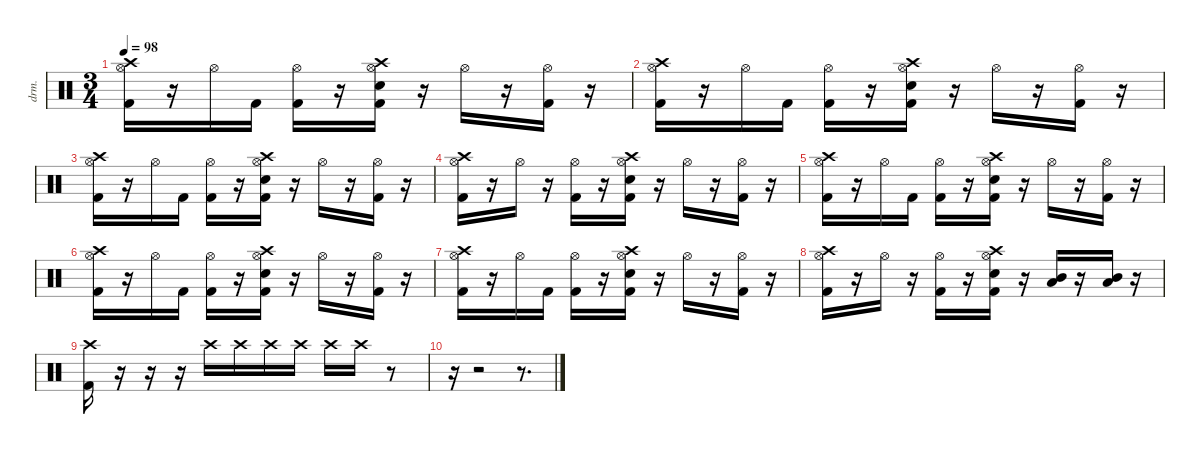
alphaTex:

\defaultSystemsLayout 4
\hideDynamics
\bracketExtendMode nobrackets
\otherSystemsTrackNameOrientation horizontal
\track ("Ударные" "drm.") {instrument percussion}
\staff {score}
\articulation defaults
\ts (3 4)
\tempo 98
\clef neutral
\ks c
("Crash high (hit)" "Kick (hit) 2" "Hi-Hat (open)").16{dy fff beam Down} r.16{beam Down} "Hi-Hat (open)".16{dy f beam Down} "Kick (hit) 2".16{beam Down} ("Kick (hit) 2" "Hi-Hat (open)").16{beam Down} r.16{beam Down} ("Crash high (hit)" "Snare (hit) 2" "Kick (hit) 2" "Hi-Hat (open)").16{beam Down} r.16{beam Down} "Hi-Hat (open)".16{beam Down} r.16{beam Down} ("Kick (hit) 2" "Hi-Hat (open)").16{beam Down} r.16{beam Down} |
("Crash high (hit)" "Kick (hit) 2" "Hi-Hat (open)").16{dy fff beam Down} r.16{beam Down} "Hi-Hat (open)".16{dy f beam Down} "Kick (hit) 2".16{dy mf beam Down} ("Kick (hit) 2" "Hi-Hat (open)").16{dy f beam Down} r.16{beam Down} ("Crash high (hit)" "Snare (hit) 2" "Kick (hit) 2" "Hi-Hat (open)").16{beam Down} r.16{beam Down} "Hi-Hat (open)".16{beam Down} r.16{beam Down} ("Kick (hit) 2" "Hi-Hat (open)").16{beam Down} r.16{beam Down} |
("Crash high (hit)" "Kick (hit) 2" "Hi-Hat (open)").16{dy fff beam Down} r.16{beam Down} "Hi-Hat (open)".16{dy f beam Down} "Kick (hit) 2".16{dy mf beam Down} ("Kick (hit) 2" "Hi-Hat (open)").16{dy f beam Down} r.16{beam Down} ("Crash high (hit)" "Snare (hit) 2" "Kick (hit) 2" "Hi-Hat (open)").16{beam Down} r.16{beam Down} "Hi-Hat (open)".16{beam Down} r.16{beam Down} ("Kick (hit) 2" "Hi-Hat (open)").16{beam Down} r.16{beam Down} |
("Crash high (hit)" "Kick (hit) 2" "Hi-Hat (open)").16{dy fff beam Down} r.16{beam Down} "Hi-Hat (open)".16{dy f beam Down} r.16{beam Down} ("Kick (hit) 2" "Hi-Hat (open)").16{beam Down} r.16{beam Down} ("Crash high (hit)" "Snare (hit) 2" "Kick (hit) 2" "Hi-Hat (open)").16{beam Down} r.16{beam Down} "Hi-Hat (open)".16{beam Down} r.16{beam Down} ("Kick (hit) 2" "Hi-Hat (open)").16{beam Down} r.16{beam Down} |
("Crash high (hit)" "Kick (hit) 2" "Hi-Hat (open)").16{dy fff beam Down} r.16{beam Down} "Hi-Hat (open)".16{dy f beam Down} "Kick (hit) 2".16{beam Down} ("Kick (hit) 2" "Hi-Hat (open)").16{beam Down} r.16{beam Down} ("Crash high (hit)" "Snare (hit) 2" "Kick (hit) 2" "Hi-Hat (open)").16{beam Down} r.16{beam Down} "Hi-Hat (open)".16{beam Down} r.16{beam Down} ("Kick (hit) 2" "Hi-Hat (open)").16{beam Down} r.16{beam Down} |
("Crash high (hit)" "Kick (hit) 2" "Hi-Hat (open)").16{dy fff beam Down} r.16{beam Down} "Hi-Hat (open)".16{dy f beam Down} "Kick (hit) 2".16{dy mf beam Down} ("Kick (hit) 2" "Hi-Hat (open)").16{dy f beam Down} r.16{beam Down} ("Crash high (hit)" "Snare (hit) 2" "Kick (hit) 2" "Hi-Hat (open)").16{beam Down} r.16{beam Down} "Hi-Hat (open)".16{beam Down} r.16{beam Down} ("Kick (hit) 2" "Hi-Hat (open)").16{beam Down} r.16{beam Down} |
("Crash high (hit)" "Kick (hit) 2" "Hi-Hat (open)").16{dy fff beam Down} r.16{beam Down} "Hi-Hat (open)".16{dy f beam Down} "Kick (hit) 2".16{dy mf beam Down} ("Kick (hit) 2" "Hi-Hat (open)").16{dy f beam Down} r.16{beam Down} ("Crash high (hit)" "Snare (hit) 2" "Kick (hit) 2" "Hi-Hat (open)").16{beam Down} r.16{beam Down} "Hi-Hat (open)".16{beam Down} r.16{beam Down} ("Kick (hit) 2" "Hi-Hat (open)").16{beam Down} r.16{beam Down} |
("Crash high (hit)" "Kick (hit) 2" "Hi-Hat (open)").16{dy fff beam Down} r.16{beam Down} "Hi-Hat (open)".16{dy f beam Down} r.16{beam Down} ("Kick (hit) 2" "Hi-Hat (open)").16{beam Down} r.16{beam Down} ("Crash high (hit)" "Snare (hit) 2" "Kick (hit) 2" "Hi-Hat (open)").16{beam Down} r.16{beam Down} ("Mid Tom (hit)" "Low Tom (hit)").16{beam Up} r.16{beam Up} ("Low Tom (hit)" "Mid Tom (hit)").16{beam Up} r.16{beam Up} |
("Crash high (hit)" "Kick (hit) 2").16{dy fff beam Down} r.16{beam Down} r.16{beam Down} r.16{beam Down} "Crash high (hit)".16{dy p beam Down} "Crash high (hit)".16{beam Down} "Crash high (hit)".16{beam Down} "Crash high (hit)".16{beam Down} "Crash high (hit)".16{beam Down} "Crash high (hit)".16{beam Down} r.8{beam Down} |
r.16{beam Down} r.2{beam Down} r.8{d beam Down}
